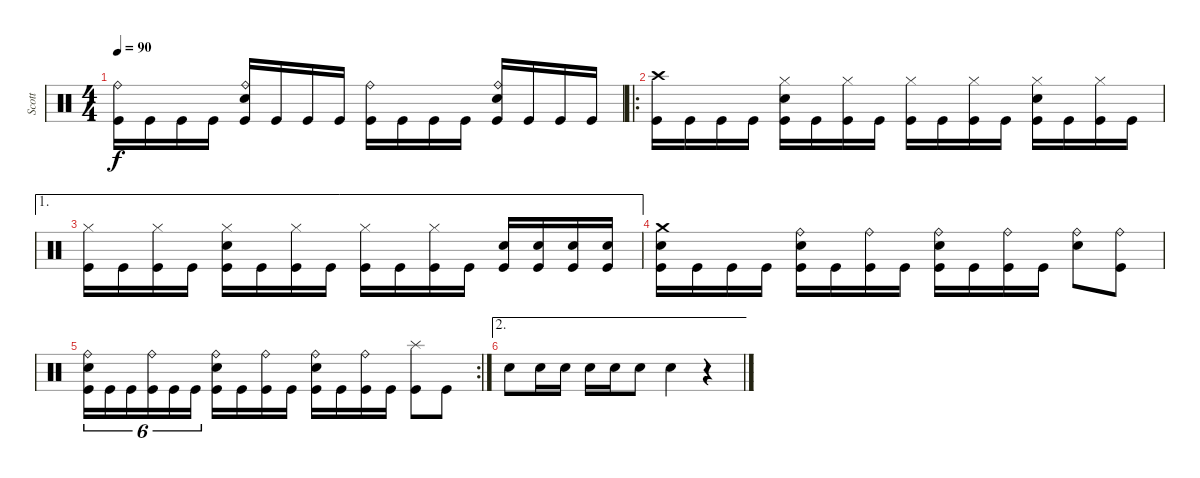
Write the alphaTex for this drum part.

\track ("Scott" "Scott") {instrument percussion}
\staff {score}
\articulation defaults
\ts (4 4)
\tempo 90
\clef neutral
\ks c
("Kick (hit)" "Ride (bell)").16{dy f} "Kick (hit)".16 "Kick (hit)".16 "Kick (hit)".16 ("Kick (hit)" "Snare (hit) 2" "Ride (bell)").16 "Kick (hit)".16 "Kick (hit)".16 "Kick (hit)".16 ("Kick (hit)" "Ride (bell)").16 "Kick (hit)".16 "Kick (hit)".16 "Kick (hit)".16 ("Kick (hit)" "Snare (hit) 2" "Ride (bell)").16 "Kick (hit)".16 "Kick (hit)".16 "Kick (hit)".16 |
\ro
("Kick (hit)" "Crash high (hit)").16 "Kick (hit)".16 "Kick (hit)".16 "Kick (hit)".16 ("Kick (hit)" "Snare (hit) 2" "Hi-Hat (closed)").16 "Kick (hit)".16 ("Kick (hit)" "Hi-Hat (closed)").16 "Kick (hit)".16 ("Kick (hit)" "Hi-Hat (closed)").16 "Kick (hit)".16 ("Kick (hit)" "Hi-Hat (closed)").16 "Kick (hit)".16 ("Kick (hit)" "Snare (hit) 2" "Hi-Hat (closed)").16 "Kick (hit)".16 ("Kick (hit)" "Hi-Hat (closed)").16 "Kick (hit)".16 |
\ae 1
("Kick (hit)" "Hi-Hat (closed)").16 "Kick (hit)".16 ("Kick (hit)" "Hi-Hat (closed)").16 "Kick (hit)".16 ("Kick (hit)" "Snare (hit) 2" "Hi-Hat (closed)").16 "Kick (hit)".16 ("Kick (hit)" "Hi-Hat (closed)").16 "Kick (hit)".16 ("Kick (hit)" "Hi-Hat (closed)").16 "Kick (hit)".16 ("Kick (hit)" "Hi-Hat (closed)").16 "Kick (hit)".16 ("Kick (hit)" "Snare (hit) 2").16 ("Kick (hit)" "Snare (hit) 2").16 ("Kick (hit)" "Snare (hit) 2").16 ("Kick (hit)" "Snare (hit) 2").16 |
("Kick (hit)" "Snare (hit) 2" "Crash medium (hit)").16 "Kick (hit)".16 "Kick (hit)".16 "Kick (hit)".16 ("Kick (hit)" "Snare (hit) 2" "Ride (bell)").16 "Kick (hit)".16 ("Kick (hit)" "Ride (bell)").16 "Kick (hit)".16 ("Kick (hit)" "Snare (hit) 2" "Ride (bell)").16 "Kick (hit)".16 ("Kick (hit)" "Ride (bell)").16 "Kick (hit)".16 ("Snare (hit) 2" "Ride (bell)").8 ("Kick (hit)" "Ride (bell)").8 |
\rc 2
("Kick (hit)" "Snare (hit) 2" "Ride (bell)").16{tu (6 4)} "Kick (hit)".16{tu (6 4)} "Kick (hit)".16{tu (6 4)} ("Kick (hit)" "Ride (bell)").16{tu (6 4)} "Kick (hit)".16{tu (6 4)} "Kick (hit)".16{tu (6 4)} ("Kick (hit)" "Snare (hit) 2" "Ride (bell)").16 "Kick (hit)".16 ("Kick (hit)" "Ride (bell)").16 "Kick (hit)".16 ("Kick (hit)" "Snare (hit) 2" "Ride (bell)").16 "Kick (hit)".16 ("Kick (hit)" "Ride (bell)").16 "Kick (hit)".16 ("Kick (hit)" "Splash (hit)").8 "Kick (hit)".8 |
\ae 2 "Snare (hit) 2".8 "Snare (hit) 2".16 "Snare (hit) 2".16 "Snare (hit) 2".16 "Snare (hit) 2".16 "Snare (hit) 2".8 "Snare (hit) 2".4
r.4
